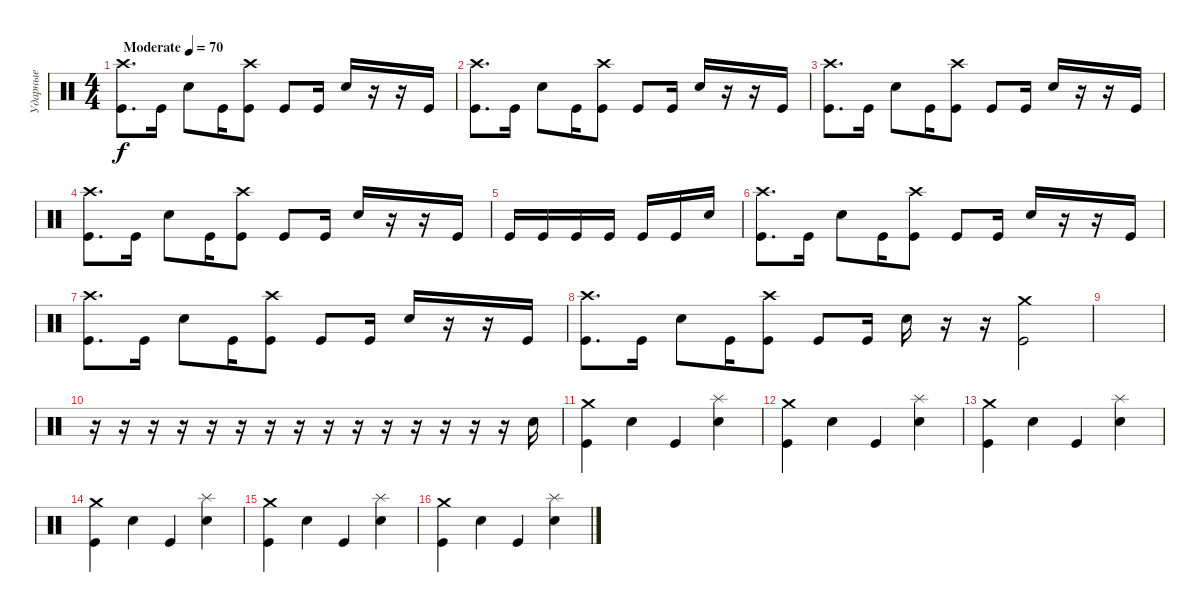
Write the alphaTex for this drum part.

\track ("Ударные" "Ударные") {instrument percussion}
\staff {score}
\articulation defaults
\ts (4 4)
\tempo (70 "Moderate")
\clef neutral
\ks c
("Crash high (hit)" "Kick (hit)").8{d dy f} "Kick (hit)".16 "Electric Snare (hit)".8 "Kick (hit)".16 ("Crash high (hit)" "Kick (hit)").8 "Kick (hit)".8 "Kick (hit)".16 "Electric Snare (hit)".16 r.16 r.16 "Kick (hit)".16 |
("Crash high (hit)" "Kick (hit)").8{d} "Kick (hit)".16 "Electric Snare (hit)".8 "Kick (hit)".16 ("Crash high (hit)" "Kick (hit)").8 "Kick (hit)".8 "Kick (hit)".16 "Electric Snare (hit)".16 r.16 r.16 "Kick (hit)".16 |
("Crash high (hit)" "Kick (hit)").8{d} "Kick (hit)".16 "Electric Snare (hit)".8 "Kick (hit)".16 ("Crash high (hit)" "Kick (hit)").8 "Kick (hit)".8 "Kick (hit)".16 "Electric Snare (hit)".16 r.16 r.16 "Kick (hit)".16 |
("Crash high (hit)" "Kick (hit)").8{d} "Kick (hit)".16 "Electric Snare (hit)".8 "Kick (hit)".16 ("Crash high (hit)" "Kick (hit)").8 "Kick (hit)".8 "Kick (hit)".16 "Electric Snare (hit)".16 r.16 r.16 "Kick (hit)".16 |
"Kick (hit)".16 "Kick (hit)".16 "Kick (hit)".16 "Kick (hit)".16 "Kick (hit)".16 "Kick (hit)".16 "Electric Snare (hit)".16 |
("Crash high (hit)" "Kick (hit)").8{d} "Kick (hit)".16 "Electric Snare (hit)".8 "Kick (hit)".16 ("Crash high (hit)" "Kick (hit)").8 "Kick (hit)".8 "Kick (hit)".16 "Electric Snare (hit)".16 r.16 r.16 "Kick (hit)".16 |
("Crash high (hit)" "Kick (hit)").8{d} "Kick (hit)".16 "Electric Snare (hit)".8 "Kick (hit)".16 ("Crash high (hit)" "Kick (hit)").8 "Kick (hit)".8 "Kick (hit)".16 "Electric Snare (hit)".16 r.16 r.16 "Kick (hit)".16 |
("Crash high (hit)" "Kick (hit)").8{d} "Kick (hit)".16 "Electric Snare (hit)".8 "Kick (hit)".16 ("Crash high (hit)" "Kick (hit)").8 "Kick (hit)".8 "Kick (hit)".16 "Electric Snare (hit)".16 r.16 r.16 ("Crash medium (hit)" "Kick (hit)").2 |
|
r.16 r.16 r.16 r.16 r.16 r.16 r.16 r.16 r.16 r.16 r.16 r.16 r.16 r.16 r.16 "Electric Snare (hit)".16 |
("Crash medium (hit)" "Kick (hit)").4 "Electric Snare (hit)".4 "Kick (hit)".4 ("Splash (hit)" "Electric Snare (hit)").4 |
("Crash medium (hit)" "Kick (hit)").4 "Electric Snare (hit)".4 "Kick (hit)".4 ("Splash (hit)" "Electric Snare (hit)").4 |
("Crash medium (hit)" "Kick (hit)").4 "Electric Snare (hit)".4 "Kick (hit)".4 ("Splash (hit)" "Electric Snare (hit)").4 |
("Crash medium (hit)" "Kick (hit)").4 "Electric Snare (hit)".4 "Kick (hit)".4 ("Splash (hit)" "Electric Snare (hit)").4 |
("Crash medium (hit)" "Kick (hit)").4 "Electric Snare (hit)".4 "Kick (hit)".4 ("Splash (hit)" "Electric Snare (hit)").4 |
("Crash medium (hit)" "Kick (hit)").4 "Electric Snare (hit)".4 "Kick (hit)".4 ("Splash (hit)" "Electric Snare (hit)").4
